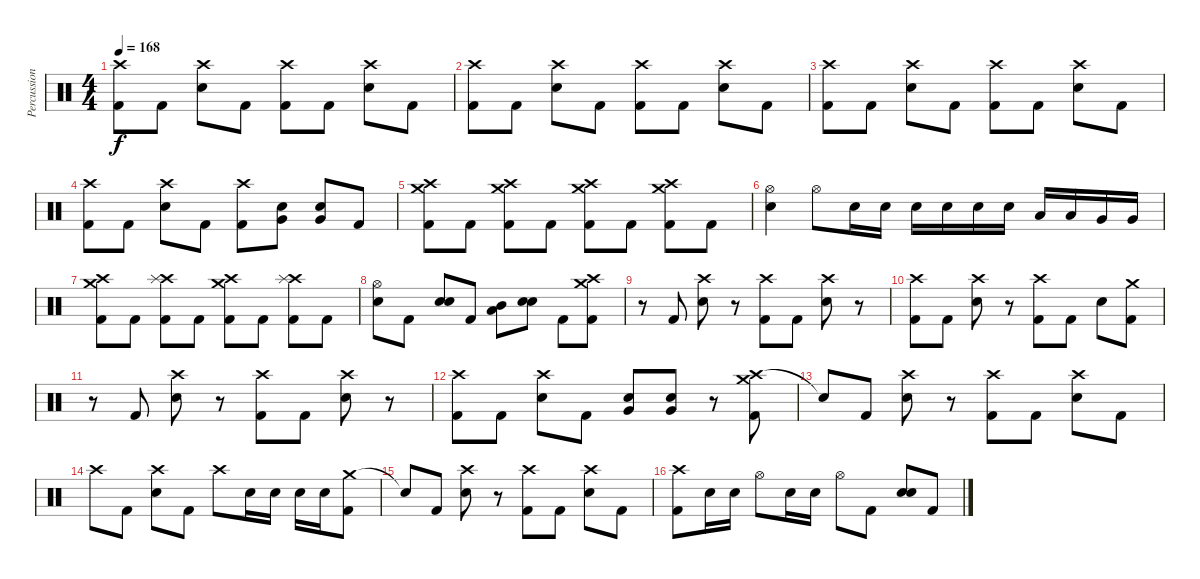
\track ("Percussion" "Percussion") {instrument percussion}
\staff {score}
\articulation defaults
\ts (4 4)
\section ("" "")
\tempo 168
\clef neutral
\ks c
("Crash high (hit)" "Kick (hit) 2").8{dy f} "Kick (hit) 2".8 ("Crash high (hit)" "Electric Snare (hit)").8 "Kick (hit) 2".8 ("Crash high (hit)" "Kick (hit) 2").8 "Kick (hit) 2".8 ("Crash high (hit)" "Electric Snare (hit)").8 "Kick (hit) 2".8 |
("Crash high (hit)" "Kick (hit) 2").8 "Kick (hit) 2".8 ("Crash high (hit)" "Electric Snare (hit)").8 "Kick (hit) 2".8 ("Crash high (hit)" "Kick (hit) 2").8 "Kick (hit) 2".8 ("Crash high (hit)" "Electric Snare (hit)").8 "Kick (hit) 2".8 |
("Crash high (hit)" "Kick (hit) 2").8 "Kick (hit) 2".8 ("Crash high (hit)" "Electric Snare (hit)").8 "Kick (hit) 2".8 ("Crash high (hit)" "Kick (hit) 2").8 "Kick (hit) 2".8 ("Crash high (hit)" "Electric Snare (hit)").8 "Kick (hit) 2".8 |
("Crash high (hit)" "Kick (hit) 2").8 "Kick (hit) 2".8 ("Crash high (hit)" "Electric Snare (hit)").8 "Kick (hit) 2".8 ("Crash high (hit)" "Kick (hit) 2").8 ("Very Low Tom (hit)" "Electric Snare (hit)").8 ("Very Low Tom (hit)" "Electric Snare (hit)").8 "Kick (hit) 2".8 |
("Crash high (hit)" "Crash medium (hit)" "Kick (hit) 2").8 "Kick (hit) 2".8 ("Crash high (hit)" "Crash medium (hit)" "Kick (hit) 2").8 "Kick (hit) 2".8 ("Crash high (hit)" "Crash medium (hit)" "Kick (hit) 2").8 "Kick (hit) 2".8 ("Crash high (hit)" "Crash medium (hit)" "Kick (hit) 2").8 "Kick (hit) 2".8 |
("Hi-Hat (open)" "Electric Snare (hit)").4 "Hi-Hat (open)".8 "Electric Snare (hit)".16 "Electric Snare (hit)".16 "Electric Snare (hit)".16 "Electric Snare (hit)".16 "Electric Snare (hit)".16 "Electric Snare (hit)".16 "Low Tom (hit)".16 "Low Tom (hit)".16 "Very Low Tom (hit)".16 "Very Low Tom (hit)".16 |
("Crash high (hit)" "Crash medium (hit)" "Kick (hit) 2").8 "Kick (hit) 2".8 ("Crash high (hit)" "Splash (hit)" "Kick (hit) 2").8 "Kick (hit) 2".8 ("Crash high (hit)" "Crash medium (hit)" "Kick (hit) 2").8 "Kick (hit) 2".8 ("Crash high (hit)" "Splash (hit)" "Kick (hit) 2").8 "Kick (hit) 2".8 |
("Hi-Hat (open)" "Electric Snare (hit)").8 "Kick (hit) 2".8 ("Electric Snare (hit)" "Electric Snare (hit)").8 "Kick (hit) 2".8 ("Low Tom (hit)" "Mid Tom (hit)").8 ("Electric Snare (hit)" "Electric Snare (hit)").8 "Kick (hit) 2".8 ("Crash high (hit)" "Crash medium (hit)" "Kick (hit) 2").8 |
r.8 "Kick (hit) 2".8 ("Crash high (hit)" "Electric Snare (hit)").8 r.8 ("Crash high (hit)" "Kick (hit) 2").8 "Kick (hit) 2".8 ("Crash high (hit)" "Electric Snare (hit)").8 r.8 |
("Crash high (hit)" "Kick (hit) 2").8 "Kick (hit) 2".8 ("Crash high (hit)" "Electric Snare (hit)").8 r.8 ("Crash high (hit)" "Kick (hit) 2").8 "Kick (hit) 2".8 "Electric Snare (hit)".8 ("Crash medium (hit)" "Kick (hit) 2").8 |
r.8 "Kick (hit) 2".8 ("Crash high (hit)" "Electric Snare (hit)").8 r.8 ("Crash high (hit)" "Kick (hit) 2").8 "Kick (hit) 2".8 ("Crash high (hit)" "Electric Snare (hit)").8 r.8 |
("Crash high (hit)" "Kick (hit) 2").8 "Kick (hit) 2".8 ("Crash high (hit)" "Electric Snare (hit)").8 "Kick (hit) 2".8 ("Very Low Tom (hit)" "Electric Snare (hit)").8 ("Very Low Tom (hit)" "Electric Snare (hit)").8 r.8 ("Crash high (hit)" "Crash medium (hit)" "Kick (hit) 2").8 |
"Snare (hit)"{t}.8 "Kick (hit) 2".8 ("Crash high (hit)" "Electric Snare (hit)").8 r.8 ("Crash high (hit)" "Kick (hit) 2").8 "Kick (hit) 2".8 ("Crash high (hit)" "Electric Snare (hit)").8 "Kick (hit) 2".8 |
"Crash high (hit)".8 "Kick (hit) 2".8 ("Crash high (hit)" "Electric Snare (hit)").8 "Kick (hit) 2".8 "Crash high (hit)".8 "Electric Snare (hit)".16 "Electric Snare (hit)".16 "Electric Snare (hit)".16 "Electric Snare (hit)".16 ("Crash medium (hit)" "Kick (hit) 2").8 |
"Snare (hit)"{t}.8 "Kick (hit) 2".8 ("Crash high (hit)" "Electric Snare (hit)").8 r.8 ("Crash high (hit)" "Kick (hit) 2").8 "Kick (hit) 2".8 ("Crash high (hit)" "Electric Snare (hit)").8 "Kick (hit) 2".8 |
("Crash high (hit)" "Kick (hit) 2").8 "Electric Snare (hit)".16 "Electric Snare (hit)".16 "Hi-Hat (open)".8 "Electric Snare (hit)".16 "Electric Snare (hit)".16 "Hi-Hat (open)".8 "Kick (hit) 2".8 ("Electric Snare (hit)" "Electric Snare (hit)").8 "Kick (hit) 2".8
